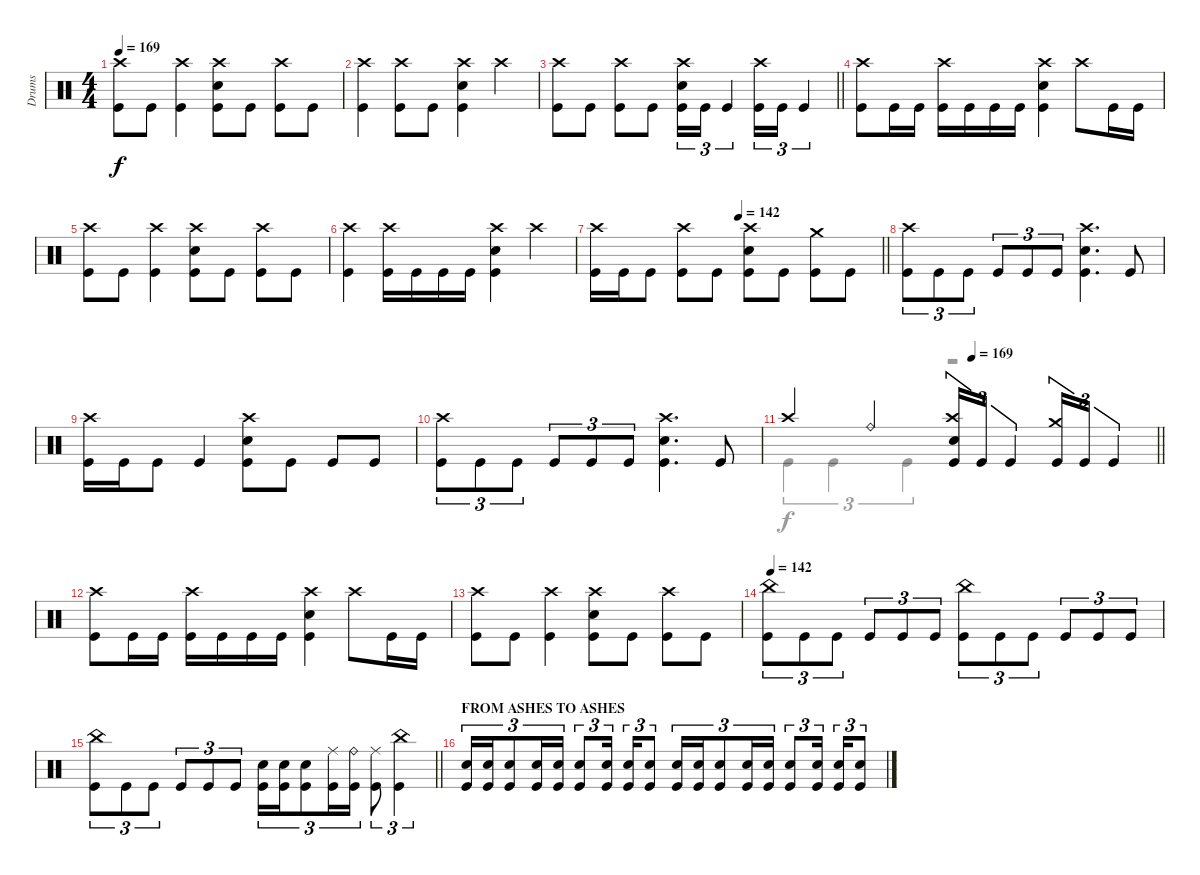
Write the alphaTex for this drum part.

\track ("Drums" "Drums") {instrument percussion}
\staff
\articulation defaults
\voice
\ts (4 4)
\tempo 169
\clef neutral
\ks c
("Crash high (hit)" "Kick (hit)").8{dy f} "Kick (hit)".8 ("Crash high (hit)" "Kick (hit)").4 ("Crash high (hit)" "Electric Snare (hit)" "Kick (hit)").8 "Kick (hit)".8 ("Crash high (hit)" "Kick (hit)").8 "Kick (hit)".8 |
("Crash high (hit)" "Kick (hit)").4 ("Crash high (hit)" "Kick (hit)").8 "Kick (hit)".8 ("Crash high (hit)" "Electric Snare (hit)" "Kick (hit)").4 "Crash high (hit)".4 |
\barLineRight lightlight
("Crash high (hit)" "Kick (hit)").8 "Kick (hit)".8 ("Crash high (hit)" "Kick (hit)").8 "Kick (hit)".8 ("Crash high (hit)" "Electric Snare (hit)" "Kick (hit)").16{tu (3 2)} "Kick (hit)".16{tu (3 2)} "Kick (hit)".4{tu (3 2)} ("Crash high (hit)" "Kick (hit)").16{tu (3 2)} "Kick (hit)".16{tu (3 2)} "Kick (hit)".4{tu (3 2)} |
("Crash high (hit)" "Kick (hit)").8 "Kick (hit)".16 "Kick (hit)".16 ("Crash high (hit)" "Kick (hit)").16 "Kick (hit)".16 "Kick (hit)".16 "Kick (hit)".16 ("Crash high (hit)" "Electric Snare (hit)" "Kick (hit)").4 "Crash high (hit)".8 "Kick (hit)".16 "Kick (hit)".16 |
("Crash high (hit)" "Kick (hit)").8 "Kick (hit)".8 ("Crash high (hit)" "Kick (hit)").4 ("Crash high (hit)" "Electric Snare (hit)" "Kick (hit)").8 "Kick (hit)".8 ("Crash high (hit)" "Kick (hit)").8 "Kick (hit)".8 |
("Crash high (hit)" "Kick (hit)").4 ("Crash high (hit)" "Kick (hit)").16 "Kick (hit)".16 "Kick (hit)".16 "Kick (hit)".16 ("Crash high (hit)" "Electric Snare (hit)" "Kick (hit)").4 "Crash high (hit)".4 |
\tempo (142 0.5)
\barLineRight lightlight
("Crash high (hit)" "Kick (hit)").16 "Kick (hit)".16 "Kick (hit)".8 ("Crash high (hit)" "Kick (hit)").8 "Kick (hit)".8 ("Crash high (hit)" "Electric Snare (hit)" "Kick (hit)").8 "Kick (hit)".8 ("Crash medium (hit)" "Kick (hit)").8 "Kick (hit)".8 |
("Crash high (hit)" "Kick (hit)").8{tu (3 2)} "Kick (hit)".8{tu (3 2)} "Kick (hit)".8{tu (3 2)} "Kick (hit)".8{tu (3 2)} "Kick (hit)".8{tu (3 2)} "Kick (hit)".8{tu (3 2)} ("Crash high (hit)" "Electric Snare (hit)" "Kick (hit)").4{d} "Kick (hit)".8 |
("Crash high (hit)" "Kick (hit)").16 "Kick (hit)".16 "Kick (hit)".8 "Kick (hit)".4 ("Crash high (hit)" "Electric Snare (hit)" "Kick (hit)").8 "Kick (hit)".8 "Kick (hit)".8 "Kick (hit)".8 |
("Crash high (hit)" "Kick (hit)").8{tu (3 2)} "Kick (hit)".8{tu (3 2)} "Kick (hit)".8{tu (3 2)} "Kick (hit)".8{tu (3 2)} "Kick (hit)".8{tu (3 2)} "Kick (hit)".8{tu (3 2)} ("Crash high (hit)" "Electric Snare (hit)" "Kick (hit)").4{d} "Kick (hit)".8 |
\tempo (169 0.5)
\barLineRight lightlight "Crash high (hit)".4 "Ride (bell)".4
("Crash high (hit)" "Electric Snare (hit)" "Kick (hit)").16{tu (3 2)} "Kick (hit)".16{tu (3 2)} "Kick (hit)".4{tu (3 2)} ("Crash medium (hit)" "Kick (hit)").16{tu (3 2)} "Kick (hit)".16{tu (3 2)} "Kick (hit)".4{tu (3 2)} |
("Crash high (hit)" "Kick (hit)").8 "Kick (hit)".16 "Kick (hit)".16 ("Crash high (hit)" "Kick (hit)").16 "Kick (hit)".16 "Kick (hit)".16 "Kick (hit)".16 ("Crash high (hit)" "Electric Snare (hit)" "Kick (hit)").4 "Crash high (hit)".8 "Kick (hit)".16 "Kick (hit)".16 |
("Crash high (hit)" "Kick (hit)").8 "Kick (hit)".8 ("Crash high (hit)" "Kick (hit)").4 ("Crash high (hit)" "Electric Snare (hit)" "Kick (hit)").8 "Kick (hit)".8 ("Crash high (hit)" "Kick (hit)").8 "Kick (hit)".8 |
\tempo 142
("China (hit)" "Kick (hit)").8{tu (3 2)} "Kick (hit)".8{tu (3 2)} "Kick (hit)".8{tu (3 2)} "Kick (hit)".8{tu (3 2)} "Kick (hit)".8{tu (3 2)} "Kick (hit)".8{tu (3 2)} ("China (hit)" "Kick (hit)").8{tu (3 2)} "Kick (hit)".8{tu (3 2)} "Kick (hit)".8{tu (3 2)} "Kick (hit)".8{tu (3 2)} "Kick (hit)".8{tu (3 2)} "Kick (hit)".8{tu (3 2)} |
\barLineRight lightlight
("China (hit)" "Kick (hit)").8{tu (3 2)} "Kick (hit)".8{tu (3 2)} "Kick (hit)".8{tu (3 2)} "Kick (hit)".8{tu (3 2)} "Kick (hit)".8{tu (3 2)} "Kick (hit)".8{tu (3 2)} ("Electric Snare (hit)" "Kick (hit)").16{tu (3 2)} ("Electric Snare (hit)" "Kick (hit)").16{tu (3 2)} ("Electric Snare (hit)" "Kick (hit)").8{tu (3 2)} ("Ride (middle)" "Kick (hit)").16{tu (3 2)} ("Ride (bell)" "Kick (hit)").16{tu (3 2)} ("Ride (middle)" "Kick (hit)").8{tu (3 2)} ("China (hit)" "Kick (hit)").4{tu (3 2)} |
\section ("" "FROM ASHES TO ASHES")
("Electric Snare (hit)" "Kick (hit)").16{tu (3 2)} ("Electric Snare (hit)" "Kick (hit)").16{tu (3 2)} ("Electric Snare (hit)" "Kick (hit)").8{tu (3 2)} ("Electric Snare (hit)" "Kick (hit)").16{tu (3 2)} ("Electric Snare (hit)" "Kick (hit)").16{tu (3 2)} ("Electric Snare (hit)" "Kick (hit)").8{tu (3 2)} ("Electric Snare (hit)" "Kick (hit)").16{tu (3 2) beam splitsecondary} ("Electric Snare (hit)" "Kick (hit)").16{tu (3 2)} ("Electric Snare (hit)" "Kick (hit)").8{tu (3 2)} ("Electric Snare (hit)" "Kick (hit)").16{tu (3 2)} ("Electric Snare (hit)" "Kick (hit)").16{tu (3 2)} ("Electric Snare (hit)" "Kick (hit)").8{tu (3 2)} ("Electric Snare (hit)" "Kick (hit)").16{tu (3 2)} ("Electric Snare (hit)" "Kick (hit)").16{tu (3 2)} ("Electric Snare (hit)" "Kick (hit)").8{tu (3 2)} ("Electric Snare (hit)" "Kick (hit)").16{tu (3 2) beam splitsecondary} ("Electric Snare (hit)" "Kick (hit)").16{tu (3 2)} ("Electric Snare (hit)" "Kick (hit)").8{tu (3 2)}
\voice
\clef neutral
\ottava regular
\simile none
\ks c
|
|
\barLineRight lightlight
|
|
|
|
\barLineRight lightlight
|
|
|
|
\barLineRight lightlight "Kick (hit)".4{tu (3 2)} "Kick (hit)".4{tu (3 2)} "Kick (hit)".4{tu (3 2)}
r.2 |
|
|
|
\barLineRight lightlight
|
